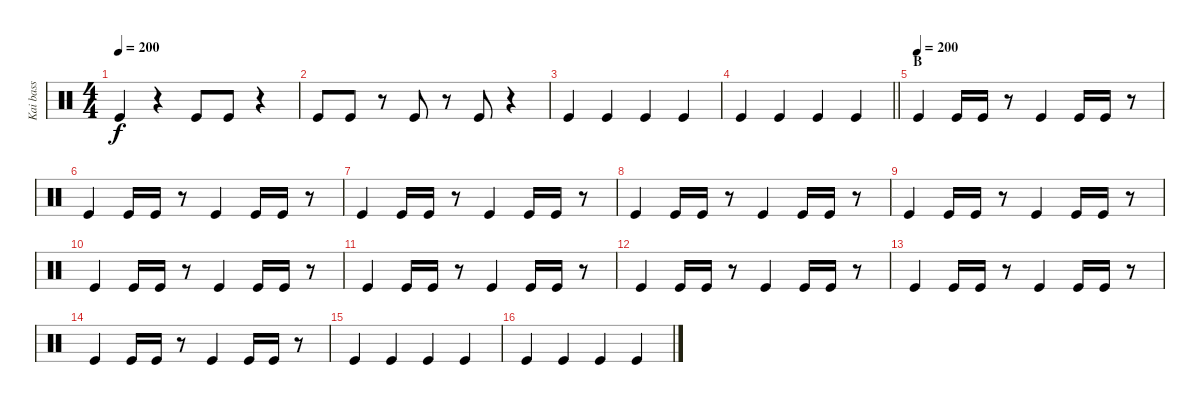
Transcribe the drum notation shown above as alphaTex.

\track ("Kai bass" "Kai bass") {instrument percussion}
\staff {score}
\articulation defaults
\ts (4 4)
\tempo 200
\clef neutral
\ks c "Kick (hit)".4{dy f}
r.4 "Kick (hit)".8 "Kick (hit)".8 r.4 |
"Kick (hit)".8 "Kick (hit)".8 r.8 "Kick (hit)".8 r.8 "Kick (hit)".8 r.4 |
"Kick (hit)".4 "Kick (hit)".4 "Kick (hit)".4 "Kick (hit)".4 |
\barLineRight lightlight "Kick (hit)".4 "Kick (hit)".4 "Kick (hit)".4 "Kick (hit)".4
|
\section ("" "B")
\tempo (200)
"Kick (hit)".4 "Kick (hit)".16 "Kick (hit)".16 r.8 "Kick (hit)".4 "Kick (hit)".16 "Kick (hit)".16 r.8 |
"Kick (hit)".4 "Kick (hit)".16 "Kick (hit)".16 r.8 "Kick (hit)".4 "Kick (hit)".16 "Kick (hit)".16 r.8 |
"Kick (hit)".4 "Kick (hit)".16 "Kick (hit)".16 r.8 "Kick (hit)".4 "Kick (hit)".16 "Kick (hit)".16 r.8 |
"Kick (hit)".4 "Kick (hit)".16 "Kick (hit)".16 r.8 "Kick (hit)".4 "Kick (hit)".16 "Kick (hit)".16 r.8 |
"Kick (hit)".4 "Kick (hit)".16 "Kick (hit)".16 r.8 "Kick (hit)".4 "Kick (hit)".16 "Kick (hit)".16 r.8 |
"Kick (hit)".4 "Kick (hit)".16 "Kick (hit)".16 r.8 "Kick (hit)".4 "Kick (hit)".16 "Kick (hit)".16 r.8 |
"Kick (hit)".4 "Kick (hit)".16 "Kick (hit)".16 r.8 "Kick (hit)".4 "Kick (hit)".16 "Kick (hit)".16 r.8 |
"Kick (hit)".4 "Kick (hit)".16 "Kick (hit)".16 r.8 "Kick (hit)".4 "Kick (hit)".16 "Kick (hit)".16 r.8 |
"Kick (hit)".4 "Kick (hit)".16 "Kick (hit)".16 r.8 "Kick (hit)".4 "Kick (hit)".16 "Kick (hit)".16 r.8 |
"Kick (hit)".4 "Kick (hit)".16 "Kick (hit)".16 r.8 "Kick (hit)".4 "Kick (hit)".16 "Kick (hit)".16 r.8 |
"Kick (hit)".4 "Kick (hit)".4 "Kick (hit)".4 "Kick (hit)".4 |
"Kick (hit)".4 "Kick (hit)".4 "Kick (hit)".4 "Kick (hit)".4
